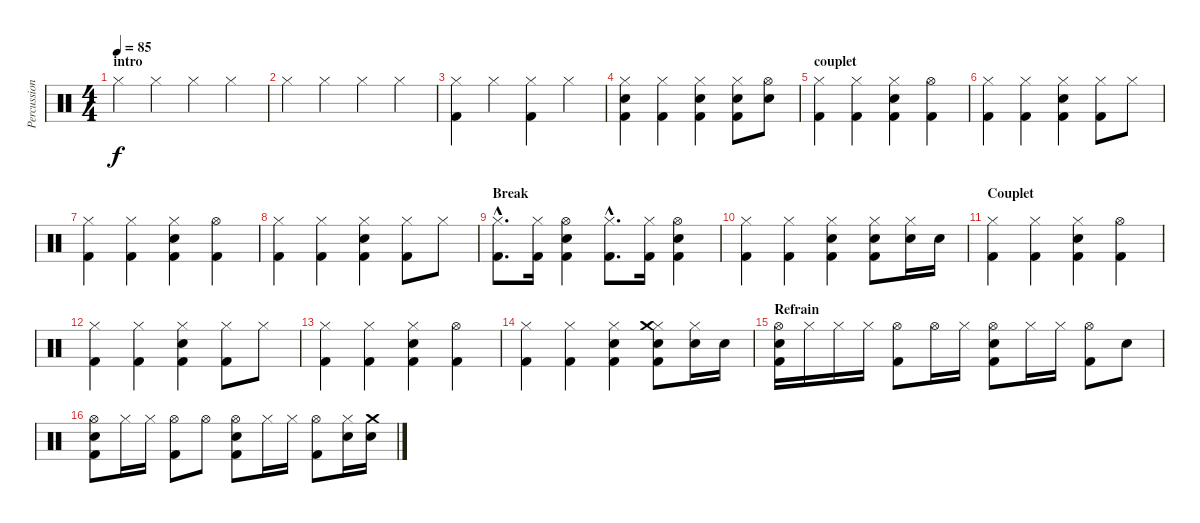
\track ("Percussions" "Percussion") {instrument percussion}
\staff {score}
\articulation defaults
\ts (4 4)
\section ("" "intro")
\tempo 85
\clef neutral
\ks c "Hi-Hat (closed)".4{dy f} "Hi-Hat (closed)".4 "Hi-Hat (closed)".4 "Hi-Hat (closed)".4
|
"Hi-Hat (closed)".4 "Hi-Hat (closed)".4 "Hi-Hat (closed)".4 "Hi-Hat (closed)".4 |
("Hi-Hat (closed)" "Kick (hit) 2").4 "Hi-Hat (closed)".4 ("Hi-Hat (closed)" "Kick (hit) 2").4 "Hi-Hat (closed)".4 |
("Hi-Hat (closed)" "Electric Snare (hit)" "Kick (hit) 2").4 ("Hi-Hat (closed)" "Kick (hit) 2").4 ("Hi-Hat (closed)" "Electric Snare (hit)" "Kick (hit) 2").4 ("Hi-Hat (closed)" "Electric Snare (hit)" "Kick (hit) 2").8 ("Hi-Hat (open)" "Electric Snare (hit)").8 |
\section ("" "couplet")
("Hi-Hat (closed)" "Kick (hit) 2").4 ("Hi-Hat (closed)" "Kick (hit) 2").4 ("Hi-Hat (closed)" "Electric Snare (hit)" "Kick (hit) 2").4 ("Hi-Hat (open)" "Kick (hit) 2").4 |
("Hi-Hat (closed)" "Kick (hit) 2").4 ("Hi-Hat (closed)" "Kick (hit) 2").4 ("Hi-Hat (closed)" "Electric Snare (hit)" "Kick (hit) 2").4 ("Hi-Hat (closed)" "Kick (hit) 2").8 "Hi-Hat (closed)".8 |
("Hi-Hat (closed)" "Kick (hit) 2").4 ("Hi-Hat (closed)" "Kick (hit) 2").4 ("Hi-Hat (closed)" "Electric Snare (hit)" "Kick (hit) 2").4 ("Hi-Hat (open)" "Kick (hit) 2").4 |
("Hi-Hat (closed)" "Kick (hit) 2").4 ("Hi-Hat (closed)" "Kick (hit) 2").4 ("Hi-Hat (closed)" "Electric Snare (hit)" "Kick (hit) 2").4 ("Hi-Hat (closed)" "Kick (hit) 2").8 "Hi-Hat (closed)".8 |
\section ("" "Break")
("Hi-Hat (closed)"{hac} "Kick (hit) 2"{hac}).8{d} ("Hi-Hat (closed)" "Kick (hit) 2").16 ("Hi-Hat (open)" "Electric Snare (hit)" "Kick (hit) 2").4 ("Hi-Hat (closed)"{hac} "Kick (hit) 2"{hac}).8{d} ("Hi-Hat (closed)" "Kick (hit) 2").16 ("Hi-Hat (open)" "Electric Snare (hit)" "Kick (hit) 2").4 |
("Hi-Hat (closed)" "Kick (hit) 2").4 ("Hi-Hat (closed)" "Kick (hit) 2").4 ("Hi-Hat (closed)" "Electric Snare (hit)" "Kick (hit) 2").4 ("Hi-Hat (closed)" "Kick (hit) 2" "Electric Snare (hit)").8 ("Hi-Hat (closed)" "Electric Snare (hit)").16 "Electric Snare (hit)".16 |
\section ("" "Couplet")
("Hi-Hat (closed)" "Kick (hit) 2").4 ("Hi-Hat (closed)" "Kick (hit) 2").4 ("Hi-Hat (closed)" "Electric Snare (hit)" "Kick (hit) 2").4 ("Hi-Hat (open)" "Kick (hit) 2").4 |
("Hi-Hat (closed)" "Kick (hit) 2").4 ("Hi-Hat (closed)" "Kick (hit) 2").4 ("Hi-Hat (closed)" "Electric Snare (hit)" "Kick (hit) 2").4 ("Hi-Hat (closed)" "Kick (hit) 2").8 "Hi-Hat (closed)".8 |
("Hi-Hat (closed)" "Kick (hit) 2").4 ("Hi-Hat (closed)" "Kick (hit) 2").4 ("Hi-Hat (closed)" "Electric Snare (hit)" "Kick (hit) 2").4 ("Hi-Hat (open)" "Kick (hit) 2").4 |
("Hi-Hat (closed)" "Kick (hit) 2").4 ("Hi-Hat (closed)" "Kick (hit) 2").4 ("Hi-Hat (closed)" "Electric Snare (hit)" "Kick (hit) 2").4 ("Hi-Hat (closed)" "Kick (hit) 2" "Crash medium (hit)" "Electric Snare (hit)").8 ("Hi-Hat (closed)" "Electric Snare (hit)").16 "Electric Snare (hit)".16 |
\section ("" "Refrain")
("Hi-Hat (open)" "Kick (hit) 2" "Electric Snare (hit)").16 "Hi-Hat (closed)".16 "Hi-Hat (closed)".16 "Hi-Hat (closed)".16 ("Hi-Hat (open)" "Kick (hit) 2").8 "Hi-Hat (open)".16 "Hi-Hat (closed)".16 ("Hi-Hat (open)" "Electric Snare (hit)" "Kick (hit) 2").8 "Hi-Hat (closed)".16 "Hi-Hat (closed)".16 ("Hi-Hat (open)" "Kick (hit) 2").8 "Electric Snare (hit)".8 |
("Hi-Hat (open)" "Kick (hit) 2" "Electric Snare (hit)").8 "Hi-Hat (closed)".16 "Hi-Hat (closed)".16 ("Hi-Hat (open)" "Kick (hit) 2").8 "Hi-Hat (open)".8 ("Hi-Hat (open)" "Electric Snare (hit)" "Kick (hit) 2").8 "Hi-Hat (closed)".16 "Hi-Hat (closed)".16 ("Hi-Hat (open)" "Kick (hit) 2").8 ("Hi-Hat (closed)" "Electric Snare (hit)").16 ("Crash medium (hit)" "Electric Snare (hit)").16
